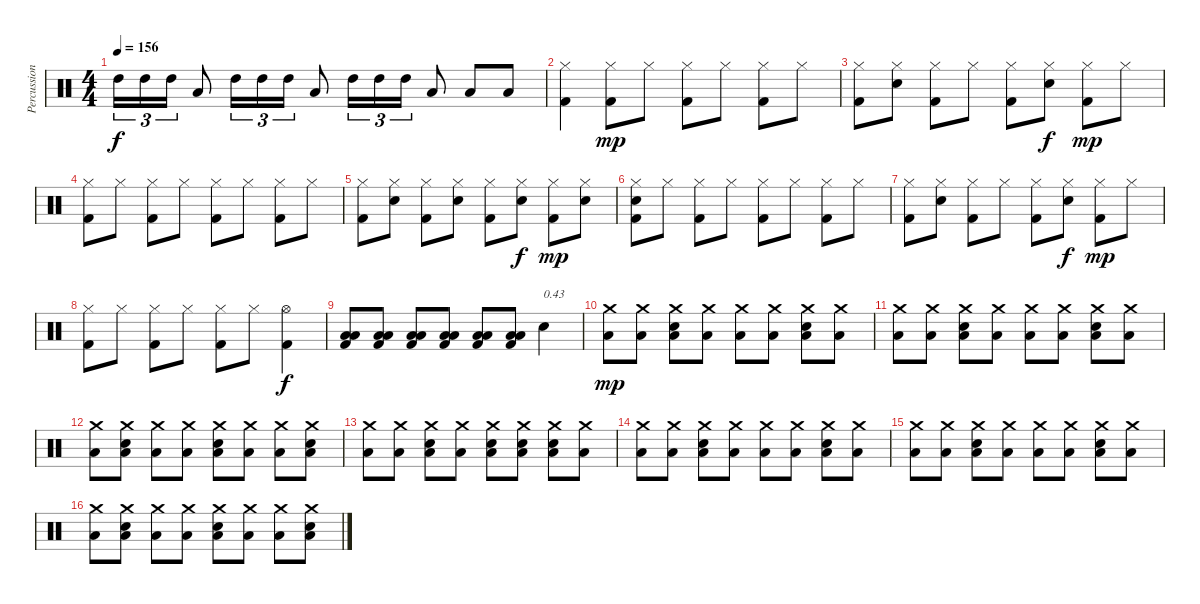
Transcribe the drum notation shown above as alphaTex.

\track ("Percussions" "Percussion") {instrument percussion}
\staff {score}
\articulation defaults
\ts (4 4)
\tempo 156
\clef neutral
\ks c "High Tom (hit)".16{tu (3 2) dy f} "High Tom (hit)".16{tu (3 2)} "High Tom (hit)".16{tu (3 2)} "Low Tom (hit)".8 "High Tom (hit)".16{tu (3 2)} "High Tom (hit)".16{tu (3 2)} "High Tom (hit)".16{tu (3 2)} "Low Tom (hit)".8 "High Tom (hit)".16{tu (3 2)} "High Tom (hit)".16{tu (3 2)} "High Tom (hit)".16{tu (3 2)} "Low Tom (hit)".8 "Low Tom (hit)".8 "Low Tom (hit)".8
|
("Kick (hit) 2" "Hi-Hat (closed)").4 ("Kick (hit) 2" "Hi-Hat (closed)").8{dy mp} "Hi-Hat (closed)".8 ("Kick (hit) 2" "Hi-Hat (closed)").8 "Hi-Hat (closed)".8 ("Kick (hit) 2" "Hi-Hat (closed)").8 "Hi-Hat (closed)".8 |
("Kick (hit) 2" "Hi-Hat (closed)").8 ("Electric Snare (hit)" "Hi-Hat (closed)").8 ("Kick (hit) 2" "Hi-Hat (closed)").8 "Hi-Hat (closed)".8 ("Kick (hit) 2" "Hi-Hat (closed)").8 ("Electric Snare (hit)" "Hi-Hat (closed)").8{dy f} ("Kick (hit) 2" "Hi-Hat (closed)").8{dy mp} "Hi-Hat (closed)".8 |
("Kick (hit) 2" "Hi-Hat (closed)").8 "Hi-Hat (closed)".8 ("Kick (hit) 2" "Hi-Hat (closed)").8 "Hi-Hat (closed)".8 ("Kick (hit) 2" "Hi-Hat (closed)").8 "Hi-Hat (closed)".8 ("Kick (hit) 2" "Hi-Hat (closed)").8 "Hi-Hat (closed)".8 |
("Kick (hit) 2" "Hi-Hat (closed)").8 ("Electric Snare (hit)" "Hi-Hat (closed)").8 ("Kick (hit) 2" "Hi-Hat (closed)").8 ("Electric Snare (hit)" "Hi-Hat (closed)").8 ("Kick (hit) 2" "Hi-Hat (closed)").8 ("Electric Snare (hit)" "Hi-Hat (closed)").8{dy f} ("Kick (hit) 2" "Hi-Hat (closed)").8{dy mp} ("Electric Snare (hit)" "Hi-Hat (closed)").8 |
("Kick (hit) 2" "Electric Snare (hit)" "Hi-Hat (closed)").8 "Hi-Hat (closed)".8 ("Kick (hit) 2" "Hi-Hat (closed)").8 "Hi-Hat (closed)".8 ("Kick (hit) 2" "Hi-Hat (closed)").8 "Hi-Hat (closed)".8 ("Kick (hit) 2" "Hi-Hat (closed)").8 "Hi-Hat (closed)".8 |
("Kick (hit) 2" "Hi-Hat (closed)").8 ("Electric Snare (hit)" "Hi-Hat (closed)").8 ("Kick (hit) 2" "Hi-Hat (closed)").8 "Hi-Hat (closed)".8 ("Kick (hit) 2" "Hi-Hat (closed)").8 ("Electric Snare (hit)" "Hi-Hat (closed)").8{dy f} ("Kick (hit) 2" "Hi-Hat (closed)").8{dy mp} "Hi-Hat (closed)".8 |
("Kick (hit) 2" "Hi-Hat (closed)").8 "Hi-Hat (closed)".8 ("Kick (hit) 2" "Hi-Hat (closed)").8 "Hi-Hat (closed)".8 ("Kick (hit) 2" "Hi-Hat (closed)").8 "Hi-Hat (closed)".8 ("Kick (hit) 2" "Hi-Hat (open)").4{dy f} |
("Kick (hit) 2" "Low Floor Tom (hit)" "Low Tom (hit)").8 ("Kick (hit) 2" "Low Floor Tom (hit)" "Low Tom (hit)").8 ("Kick (hit) 2" "Low Floor Tom (hit)" "Low Tom (hit)").8 ("Kick (hit) 2" "Low Floor Tom (hit)" "Low Tom (hit)").8 ("Kick (hit) 2" "Low Floor Tom (hit)" "Low Tom (hit)").8 ("Kick (hit) 2" "Low Floor Tom (hit)" "Low Tom (hit)").8 "Electric Snare (hit)".4{txt "0.43"} |
("Low Floor Tom (hit)" "Crash medium (hit)").8{dy mp} ("Low Floor Tom (hit)" "Crash medium (hit)").8 ("Low Floor Tom (hit)" "Electric Snare (hit)" "Crash medium (hit)").8 ("Low Floor Tom (hit)" "Crash medium (hit)").8 ("Low Floor Tom (hit)" "Crash medium (hit)").8 ("Low Floor Tom (hit)" "Crash medium (hit)").8 ("Low Floor Tom (hit)" "Electric Snare (hit)" "Crash medium (hit)").8 ("Low Floor Tom (hit)" "Crash medium (hit)").8 |
("Low Floor Tom (hit)" "Crash medium (hit)").8 ("Low Floor Tom (hit)" "Crash medium (hit)").8 ("Low Floor Tom (hit)" "Electric Snare (hit)" "Crash medium (hit)").8 ("Low Floor Tom (hit)" "Crash medium (hit)").8 ("Low Floor Tom (hit)" "Crash medium (hit)").8 ("Low Floor Tom (hit)" "Crash medium (hit)").8 ("Low Floor Tom (hit)" "Electric Snare (hit)" "Crash medium (hit)").8 ("Low Floor Tom (hit)" "Crash medium (hit)").8 |
("Low Floor Tom (hit)" "Crash medium (hit)").8 ("Low Floor Tom (hit)" "Electric Snare (hit)" "Crash medium (hit)").8 ("Low Floor Tom (hit)" "Crash medium (hit)").8 ("Low Floor Tom (hit)" "Crash medium (hit)").8 ("Low Floor Tom (hit)" "Electric Snare (hit)" "Crash medium (hit)").8 ("Low Floor Tom (hit)" "Crash medium (hit)").8 ("Low Floor Tom (hit)" "Crash medium (hit)").8 ("Low Floor Tom (hit)" "Electric Snare (hit)" "Crash medium (hit)").8 |
("Low Floor Tom (hit)" "Crash medium (hit)").8 ("Low Floor Tom (hit)" "Crash medium (hit)").8 ("Low Floor Tom (hit)" "Electric Snare (hit)" "Crash medium (hit)").8 ("Low Floor Tom (hit)" "Crash medium (hit)").8 ("Low Floor Tom (hit)" "Electric Snare (hit)" "Crash medium (hit)").8 ("Low Floor Tom (hit)" "Electric Snare (hit)" "Crash medium (hit)").8 ("Low Floor Tom (hit)" "Electric Snare (hit)" "Crash medium (hit)").8 ("Low Floor Tom (hit)" "Crash medium (hit)").8 |
("Low Floor Tom (hit)" "Crash medium (hit)").8 ("Low Floor Tom (hit)" "Crash medium (hit)").8 ("Low Floor Tom (hit)" "Electric Snare (hit)" "Crash medium (hit)").8 ("Low Floor Tom (hit)" "Crash medium (hit)").8 ("Low Floor Tom (hit)" "Crash medium (hit)").8 ("Low Floor Tom (hit)" "Crash medium (hit)").8 ("Low Floor Tom (hit)" "Electric Snare (hit)" "Crash medium (hit)").8 ("Low Floor Tom (hit)" "Crash medium (hit)").8 |
("Low Floor Tom (hit)" "Crash medium (hit)").8 ("Low Floor Tom (hit)" "Crash medium (hit)").8 ("Low Floor Tom (hit)" "Electric Snare (hit)" "Crash medium (hit)").8 ("Low Floor Tom (hit)" "Crash medium (hit)").8 ("Low Floor Tom (hit)" "Crash medium (hit)").8 ("Low Floor Tom (hit)" "Crash medium (hit)").8 ("Low Floor Tom (hit)" "Electric Snare (hit)" "Crash medium (hit)").8 ("Low Floor Tom (hit)" "Crash medium (hit)").8 |
("Low Floor Tom (hit)" "Crash medium (hit)").8 ("Low Floor Tom (hit)" "Electric Snare (hit)" "Crash medium (hit)").8 ("Low Floor Tom (hit)" "Crash medium (hit)").8 ("Low Floor Tom (hit)" "Crash medium (hit)").8 ("Low Floor Tom (hit)" "Electric Snare (hit)" "Crash medium (hit)").8 ("Low Floor Tom (hit)" "Crash medium (hit)").8 ("Low Floor Tom (hit)" "Crash medium (hit)").8 ("Low Floor Tom (hit)" "Electric Snare (hit)" "Crash medium (hit)").8
